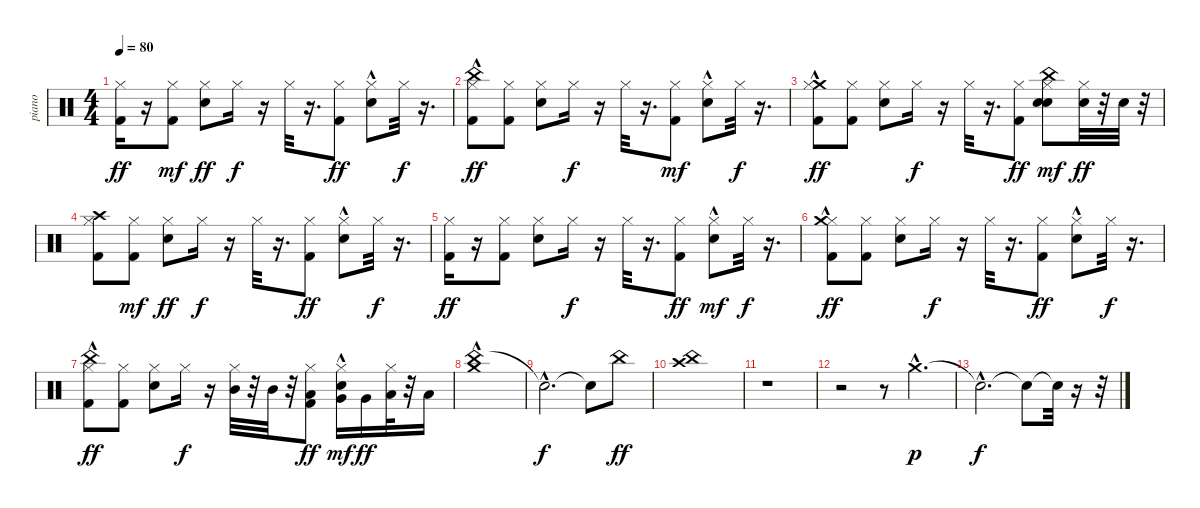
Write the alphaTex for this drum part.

\track ("piano" "piano") {instrument percussion}
\staff {score}
\articulation defaults
\ts (4 4)
\tempo 80
\clef neutral
\ks c
("Hi-Hat (closed)" "Kick (hit) 2").16{dy ff} r.16 ("Kick (hit) 2" "Hi-Hat (closed)").8{dy mf} ("Hi-Hat (closed)" "Snare (hit) 2").8{dy ff} "Hi-Hat (closed)".16{dy f} r.16 "Hi-Hat (closed)".32 r.16{d} ("Hi-Hat (closed)" "Kick (hit) 2").8{dy ff} ("Hi-Hat (closed)" "Snare (hit) 2"{hac}).8 "Hi-Hat (closed)".32{dy f} r.16{d} |
("China (hit)"{hac} "Kick (hit) 2" "Hi-Hat (closed)").8{dy ff} ("Hi-Hat (closed)" "Kick (hit) 2").8 ("Snare (hit) 2" "Hi-Hat (closed)").8 "Hi-Hat (closed)".16{dy f} r.16 "Hi-Hat (closed)".32 r.16{d} ("Kick (hit) 2" "Hi-Hat (closed)").8{dy mf} ("Snare (hit) 2"{hac} "Hi-Hat (closed)").8 "Hi-Hat (closed)".32{dy f} r.16{d} |
("Crash medium (hit)"{hac} "Kick (hit) 2" "Hi-Hat (closed)").8{dy ff} ("Hi-Hat (closed)" "Kick (hit) 2").8 ("Snare (hit) 2" "Hi-Hat (closed)").8 "Hi-Hat (closed)".16{dy f} r.16 "Hi-Hat (closed)".32 r.16{d} ("Hi-Hat (closed)" "Kick (hit) 2").8{dy ff} ("Snare (hit) 2" "Snare (hit) 2" "China (hit)" "Hi-Hat (closed)").8{dy mf} ("Hi-Hat (closed)" "Snare (hit) 2").32{dy ff} r.32 "Snare (hit) 2".32 r.32 |
("Hi-Hat (closed)" "Crash high (hit)" "Kick (hit) 2").8 ("Kick (hit) 2" "Hi-Hat (closed)").8{dy mf} ("Snare (hit) 2" "Hi-Hat (closed)").8{dy ff} "Hi-Hat (closed)".16{dy f} r.16 "Hi-Hat (closed)".32 r.16{d} ("Hi-Hat (closed)" "Kick (hit) 2").8{dy ff} ("Hi-Hat (closed)" "Snare (hit) 2"{hac}).8 "Hi-Hat (closed)".32{dy f} r.16{d} |
("Kick (hit) 2" "Hi-Hat (closed)").16{dy ff} r.16 ("Hi-Hat (closed)" "Kick (hit) 2").8 ("Hi-Hat (closed)" "Snare (hit) 2").8 "Hi-Hat (closed)".16{dy f} r.16 "Hi-Hat (closed)".32 r.16{d} ("Hi-Hat (closed)" "Kick (hit) 2").8{dy ff} ("Snare (hit) 2"{hac} "Hi-Hat (closed)").8{dy mf} "Hi-Hat (closed)".32{dy f} r.16{d} |
("Kick (hit) 2" "Hi-Hat (closed)" "Crash medium (hit)"{hac}).8{dy ff} ("Hi-Hat (closed)" "Kick (hit) 2").8 ("Snare (hit) 2" "Hi-Hat (closed)").8 "Hi-Hat (closed)".16{dy f} r.16 "Hi-Hat (closed)".32 r.16{d} ("Hi-Hat (closed)" "Kick (hit) 2").8{dy ff} ("Hi-Hat (closed)" "Snare (hit) 2"{hac}).8 "Hi-Hat (closed)".32{dy f} r.16{d} |
("Kick (hit) 2" "Hi-Hat (closed)" "China (hit)"{hac}).8{dy ff} ("Hi-Hat (closed)" "Kick (hit) 2").8 ("Snare (hit) 2" "Hi-Hat (closed)").8 "Hi-Hat (closed)".16{dy f} r.16 ("Hi-Hat (closed)" "Mid Tom (hit)").32 r.32 "Mid Tom (hit)".32 r.32 ("Hi-Hat (closed)" "Kick (hit) 2" "Low Tom (hit)").8{dy ff} ("Very Low Tom (hit)" "Snare (hit) 2"{hac} "Hi-Hat (closed)").16{dy mf} "Very Low Tom (hit)".16{dy ff} ("Hi-Hat (closed)" "Low Floor Tom (hit)").32 r.32 "Low Floor Tom (hit)".16 |
("China (hit)" "Crash medium (hit)"{hac}).1 |
"Snare (hit)"{hac t}.2{d dy f} "Snare (hit)"{t}.8 "China (hit)".8{dy ff} |
("China (hit)" "Crash high (hit)").1 |
r.1 |
r.2 r.8 "Crash medium (hit)"{hac}.4{d dy p} |
"Snare (hit)"{hac t}.2{d dy f} "Snare (hit)"{t}.8 "Snare (hit)"{t}.32 r.16 r.32
